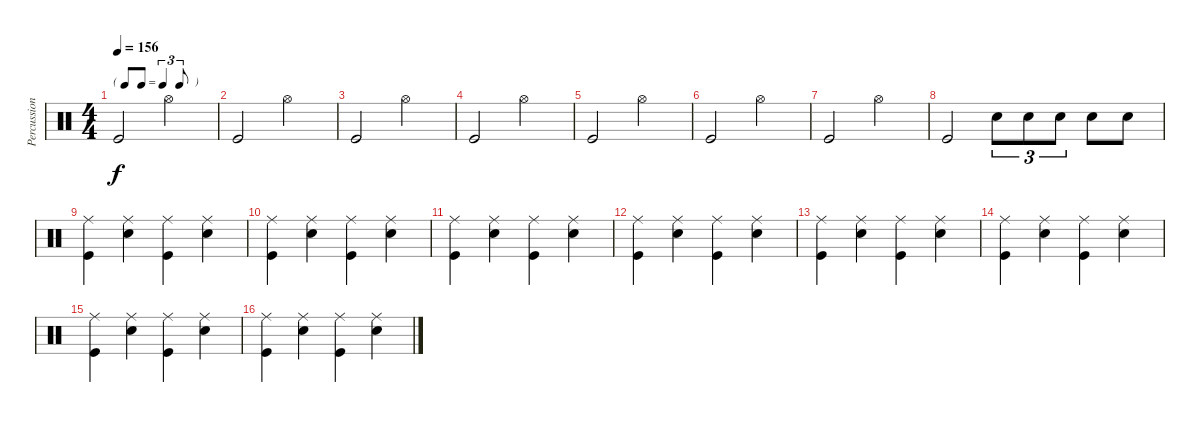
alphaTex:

\track ("Percussion" "Percussion") {instrument percussion}
\staff {score}
\articulation defaults
\ts (4 4)
\tf triplet8th
\tempo 156
\clef neutral
\ks c "Kick (hit)".2{dy f} "Hi-Hat (open)".2
|
"Kick (hit)".2 "Hi-Hat (open)".2 |
"Kick (hit)".2 "Hi-Hat (open)".2 |
"Kick (hit)".2 "Hi-Hat (open)".2 |
"Kick (hit)".2 "Hi-Hat (open)".2 |
"Kick (hit)".2 "Hi-Hat (open)".2 |
"Kick (hit)".2 "Hi-Hat (open)".2 |
"Kick (hit)".2 "Snare (hit) 2".8{tu (3 2)} "Snare (hit) 2".8{tu (3 2)} "Snare (hit) 2".8{tu (3 2)} "Snare (hit) 2".8 "Snare (hit) 2".8 |
("Ride (middle)" "Kick (hit)").4 ("Snare (hit) 2" "Ride (middle)").4 ("Ride (middle)" "Kick (hit)").4 ("Snare (hit) 2" "Ride (middle)").4 |
("Ride (middle)" "Kick (hit)").4 ("Snare (hit) 2" "Ride (middle)").4 ("Ride (middle)" "Kick (hit)").4 ("Snare (hit) 2" "Ride (middle)").4 |
("Ride (middle)" "Kick (hit)").4 ("Snare (hit) 2" "Ride (middle)").4 ("Ride (middle)" "Kick (hit)").4 ("Snare (hit) 2" "Ride (middle)").4 |
("Ride (middle)" "Kick (hit)").4 ("Snare (hit) 2" "Ride (middle)").4 ("Ride (middle)" "Kick (hit)").4 ("Snare (hit) 2" "Ride (middle)").4 |
("Ride (middle)" "Kick (hit)").4 ("Snare (hit) 2" "Ride (middle)").4 ("Ride (middle)" "Kick (hit)").4 ("Snare (hit) 2" "Ride (middle)").4 |
("Ride (middle)" "Kick (hit)").4 ("Snare (hit) 2" "Ride (middle)").4 ("Ride (middle)" "Kick (hit)").4 ("Snare (hit) 2" "Ride (middle)").4 |
("Ride (middle)" "Kick (hit)").4 ("Snare (hit) 2" "Ride (middle)").4 ("Ride (middle)" "Kick (hit)").4 ("Snare (hit) 2" "Ride (middle)").4 |
("Ride (middle)" "Kick (hit)").4 ("Snare (hit) 2" "Ride (middle)").4 ("Ride (middle)" "Kick (hit)").4 ("Snare (hit) 2" "Ride (middle)").4
